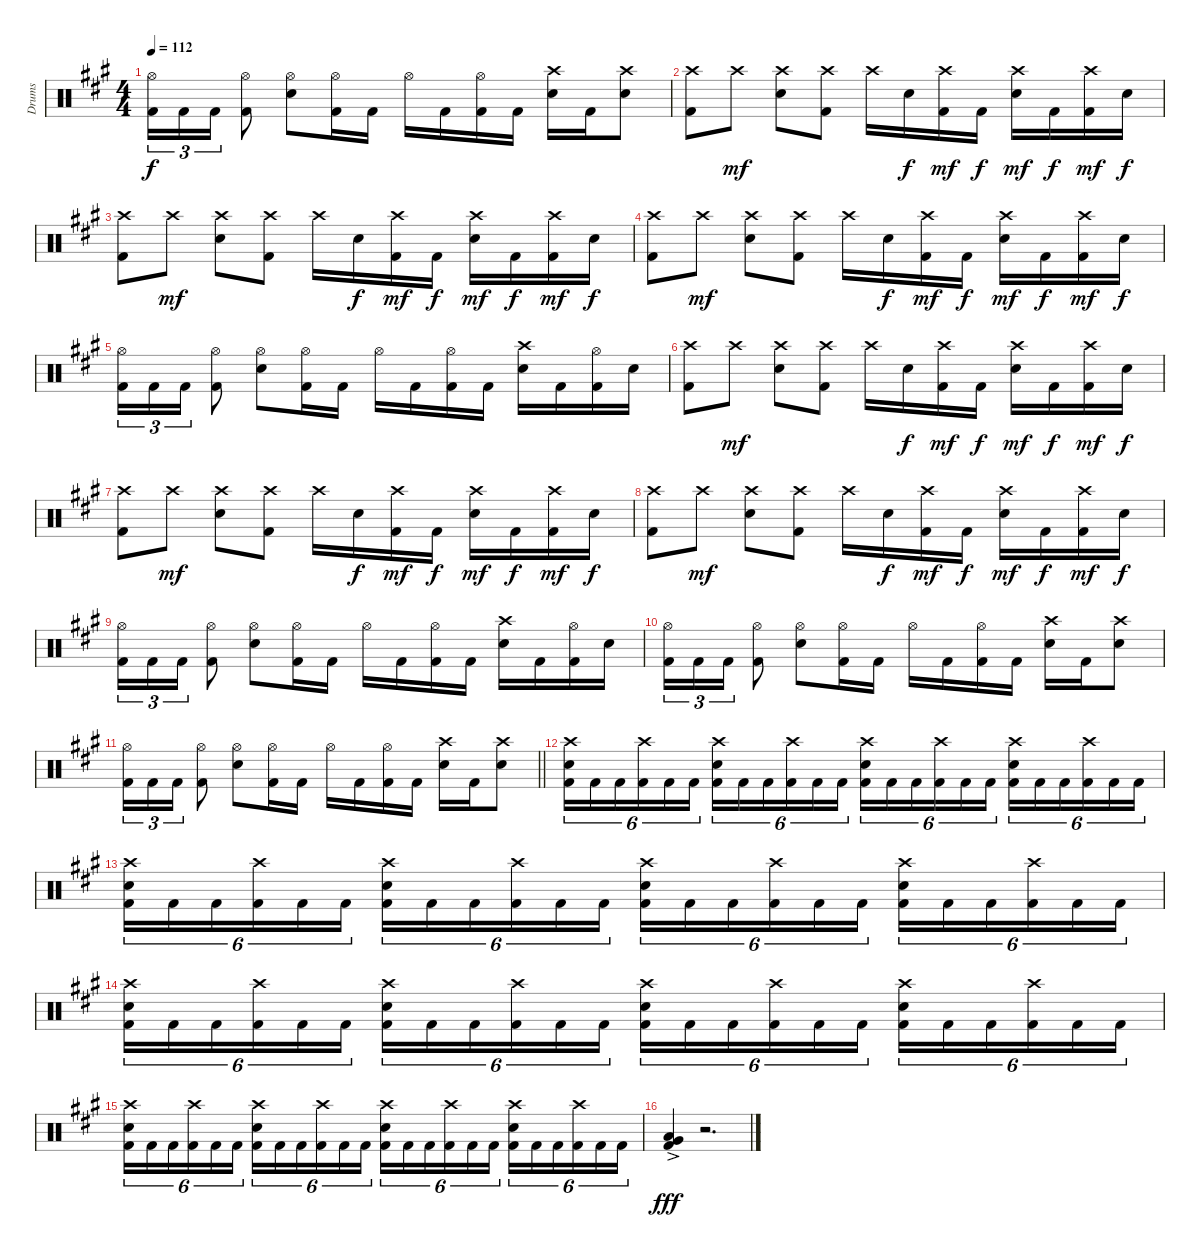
\track ("Drums" "Drums") {instrument percussion}
\staff {score}
\articulation defaults
\ts (4 4)
\tempo 112
\clef neutral
\ks f#minor
("Hi-Hat (open)" "Kick (hit) 2").16{tu (3 2) dy f} "Kick (hit) 2".16{tu (3 2)} "Kick (hit) 2".16{tu (3 2)} ("Hi-Hat (open)" "Kick (hit) 2").8 ("Hi-Hat (open)" "Snare (hit) 2").8 ("Hi-Hat (open)" "Kick (hit) 2").16 "Kick (hit) 2".16 "Hi-Hat (open)".16 "Kick (hit) 2".16 ("Hi-Hat (open)" "Kick (hit) 2").16 "Kick (hit) 2".16 ("Crash high (hit)" "Snare (hit) 2").16 "Kick (hit) 2".16 ("Crash high (hit)" "Snare (hit) 2").8 |
("Crash high (hit)" "Kick (hit) 2").8 "Crash high (hit)".8{dy mf} ("Crash high (hit)" "Snare (hit) 2").8 ("Crash high (hit)" "Kick (hit) 2").8 "Crash high (hit)".16 "Snare (hit) 2".16{dy f} ("Crash high (hit)" "Kick (hit) 2").16{dy mf} "Kick (hit) 2".16{dy f} ("Crash high (hit)" "Snare (hit) 2").16{dy mf} "Kick (hit) 2".16{dy f} ("Crash high (hit)" "Kick (hit) 2").16{dy mf} "Snare (hit) 2".16{dy f} |
("Crash high (hit)" "Kick (hit) 2").8 "Crash high (hit)".8{dy mf} ("Crash high (hit)" "Snare (hit) 2").8 ("Crash high (hit)" "Kick (hit) 2").8 "Crash high (hit)".16 "Snare (hit) 2".16{dy f} ("Crash high (hit)" "Kick (hit) 2").16{dy mf} "Kick (hit) 2".16{dy f} ("Crash high (hit)" "Snare (hit) 2").16{dy mf} "Kick (hit) 2".16{dy f} ("Crash high (hit)" "Kick (hit) 2").16{dy mf} "Snare (hit) 2".16{dy f} |
("Crash high (hit)" "Kick (hit) 2").8 "Crash high (hit)".8{dy mf} ("Crash high (hit)" "Snare (hit) 2").8 ("Crash high (hit)" "Kick (hit) 2").8 "Crash high (hit)".16 "Snare (hit) 2".16{dy f} ("Crash high (hit)" "Kick (hit) 2").16{dy mf} "Kick (hit) 2".16{dy f} ("Crash high (hit)" "Snare (hit) 2").16{dy mf} "Kick (hit) 2".16{dy f} ("Crash high (hit)" "Kick (hit) 2").16{dy mf} "Snare (hit) 2".16{dy f} |
("Hi-Hat (open)" "Kick (hit) 2").16{tu (3 2)} "Kick (hit) 2".16{tu (3 2)} "Kick (hit) 2".16{tu (3 2)} ("Hi-Hat (open)" "Kick (hit) 2").8 ("Hi-Hat (open)" "Snare (hit) 2").8 ("Hi-Hat (open)" "Kick (hit) 2").16 "Kick (hit) 2".16 "Hi-Hat (open)".16 "Kick (hit) 2".16 ("Hi-Hat (open)" "Kick (hit) 2").16 "Kick (hit) 2".16 ("Crash high (hit)" "Snare (hit) 2").16 "Kick (hit) 2".16 ("Hi-Hat (open)" "Kick (hit) 2").16 "Snare (hit) 2".16 |
("Crash high (hit)" "Kick (hit) 2").8 "Crash high (hit)".8{dy mf} ("Crash high (hit)" "Snare (hit) 2").8 ("Crash high (hit)" "Kick (hit) 2").8 "Crash high (hit)".16 "Snare (hit) 2".16{dy f} ("Crash high (hit)" "Kick (hit) 2").16{dy mf} "Kick (hit) 2".16{dy f} ("Crash high (hit)" "Snare (hit) 2").16{dy mf} "Kick (hit) 2".16{dy f} ("Crash high (hit)" "Kick (hit) 2").16{dy mf} "Snare (hit) 2".16{dy f} |
("Crash high (hit)" "Kick (hit) 2").8 "Crash high (hit)".8{dy mf} ("Crash high (hit)" "Snare (hit) 2").8 ("Crash high (hit)" "Kick (hit) 2").8 "Crash high (hit)".16 "Snare (hit) 2".16{dy f} ("Crash high (hit)" "Kick (hit) 2").16{dy mf} "Kick (hit) 2".16{dy f} ("Crash high (hit)" "Snare (hit) 2").16{dy mf} "Kick (hit) 2".16{dy f} ("Crash high (hit)" "Kick (hit) 2").16{dy mf} "Snare (hit) 2".16{dy f} |
("Crash high (hit)" "Kick (hit) 2").8 "Crash high (hit)".8{dy mf} ("Crash high (hit)" "Snare (hit) 2").8 ("Crash high (hit)" "Kick (hit) 2").8 "Crash high (hit)".16 "Snare (hit) 2".16{dy f} ("Crash high (hit)" "Kick (hit) 2").16{dy mf} "Kick (hit) 2".16{dy f} ("Crash high (hit)" "Snare (hit) 2").16{dy mf} "Kick (hit) 2".16{dy f} ("Crash high (hit)" "Kick (hit) 2").16{dy mf} "Snare (hit) 2".16{dy f} |
("Hi-Hat (open)" "Kick (hit) 2").16{tu (3 2)} "Kick (hit) 2".16{tu (3 2)} "Kick (hit) 2".16{tu (3 2)} ("Hi-Hat (open)" "Kick (hit) 2").8 ("Hi-Hat (open)" "Snare (hit) 2").8 ("Hi-Hat (open)" "Kick (hit) 2").16 "Kick (hit) 2".16 "Hi-Hat (open)".16 "Kick (hit) 2".16 ("Hi-Hat (open)" "Kick (hit) 2").16 "Kick (hit) 2".16 ("Crash high (hit)" "Snare (hit) 2").16 "Kick (hit) 2".16 ("Hi-Hat (open)" "Kick (hit) 2").16 "Snare (hit) 2".16 |
("Hi-Hat (open)" "Kick (hit) 2").16{tu (3 2)} "Kick (hit) 2".16{tu (3 2)} "Kick (hit) 2".16{tu (3 2)} ("Hi-Hat (open)" "Kick (hit) 2").8 ("Hi-Hat (open)" "Snare (hit) 2").8 ("Hi-Hat (open)" "Kick (hit) 2").16 "Kick (hit) 2".16 "Hi-Hat (open)".16 "Kick (hit) 2".16 ("Hi-Hat (open)" "Kick (hit) 2").16 "Kick (hit) 2".16 ("Crash high (hit)" "Snare (hit) 2").16 "Kick (hit) 2".16 ("Crash high (hit)" "Snare (hit) 2").8 |
\barLineRight lightlight
("Hi-Hat (open)" "Kick (hit) 2").16{tu (3 2)} "Kick (hit) 2".16{tu (3 2)} "Kick (hit) 2".16{tu (3 2)} ("Hi-Hat (open)" "Kick (hit) 2").8 ("Hi-Hat (open)" "Snare (hit) 2").8 ("Hi-Hat (open)" "Kick (hit) 2").16 "Kick (hit) 2".16 "Hi-Hat (open)".16 "Kick (hit) 2".16 ("Hi-Hat (open)" "Kick (hit) 2").16 "Kick (hit) 2".16 ("Crash high (hit)" "Snare (hit) 2").16 "Kick (hit) 2".16 ("Crash high (hit)" "Snare (hit) 2").8 |
("Crash high (hit)" "Snare (hit) 2" "Kick (hit) 2").16{tu (6 4)} "Kick (hit) 2".16{tu (6 4)} "Kick (hit) 2".16{tu (6 4)} ("Crash high (hit)" "Kick (hit) 2").16{tu (6 4)} "Kick (hit) 2".16{tu (6 4)} "Kick (hit) 2".16{tu (6 4)} ("Crash high (hit)" "Snare (hit) 2" "Kick (hit) 2").16{tu (6 4)} "Kick (hit) 2".16{tu (6 4)} "Kick (hit) 2".16{tu (6 4)} ("Crash high (hit)" "Kick (hit) 2").16{tu (6 4)} "Kick (hit) 2".16{tu (6 4)} "Kick (hit) 2".16{tu (6 4)} ("Crash high (hit)" "Snare (hit) 2" "Kick (hit) 2").16{tu (6 4)} "Kick (hit) 2".16{tu (6 4)} "Kick (hit) 2".16{tu (6 4)} ("Crash high (hit)" "Kick (hit) 2").16{tu (6 4)} "Kick (hit) 2".16{tu (6 4)} "Kick (hit) 2".16{tu (6 4)} ("Crash high (hit)" "Snare (hit) 2" "Kick (hit) 2").16{tu (6 4)} "Kick (hit) 2".16{tu (6 4)} "Kick (hit) 2".16{tu (6 4)} ("Crash high (hit)" "Kick (hit) 2").16{tu (6 4)} "Kick (hit) 2".16{tu (6 4)} "Kick (hit) 2".16{tu (6 4)} |
("Crash high (hit)" "Snare (hit) 2" "Kick (hit) 2").16{tu (6 4)} "Kick (hit) 2".16{tu (6 4)} "Kick (hit) 2".16{tu (6 4)} ("Crash high (hit)" "Kick (hit) 2").16{tu (6 4)} "Kick (hit) 2".16{tu (6 4)} "Kick (hit) 2".16{tu (6 4)} ("Crash high (hit)" "Snare (hit) 2" "Kick (hit) 2").16{tu (6 4)} "Kick (hit) 2".16{tu (6 4)} "Kick (hit) 2".16{tu (6 4)} ("Crash high (hit)" "Kick (hit) 2").16{tu (6 4)} "Kick (hit) 2".16{tu (6 4)} "Kick (hit) 2".16{tu (6 4)} ("Crash high (hit)" "Snare (hit) 2" "Kick (hit) 2").16{tu (6 4)} "Kick (hit) 2".16{tu (6 4)} "Kick (hit) 2".16{tu (6 4)} ("Crash high (hit)" "Kick (hit) 2").16{tu (6 4)} "Kick (hit) 2".16{tu (6 4)} "Kick (hit) 2".16{tu (6 4)} ("Crash high (hit)" "Snare (hit) 2" "Kick (hit) 2").16{tu (6 4)} "Kick (hit) 2".16{tu (6 4)} "Kick (hit) 2".16{tu (6 4)} ("Crash high (hit)" "Kick (hit) 2").16{tu (6 4)} "Kick (hit) 2".16{tu (6 4)} "Kick (hit) 2".16{tu (6 4)} |
("Crash high (hit)" "Snare (hit) 2" "Kick (hit) 2").16{tu (6 4)} "Kick (hit) 2".16{tu (6 4)} "Kick (hit) 2".16{tu (6 4)} ("Crash high (hit)" "Kick (hit) 2").16{tu (6 4)} "Kick (hit) 2".16{tu (6 4)} "Kick (hit) 2".16{tu (6 4)} ("Crash high (hit)" "Snare (hit) 2" "Kick (hit) 2").16{tu (6 4)} "Kick (hit) 2".16{tu (6 4)} "Kick (hit) 2".16{tu (6 4)} ("Crash high (hit)" "Kick (hit) 2").16{tu (6 4)} "Kick (hit) 2".16{tu (6 4)} "Kick (hit) 2".16{tu (6 4)} ("Crash high (hit)" "Snare (hit) 2" "Kick (hit) 2").16{tu (6 4)} "Kick (hit) 2".16{tu (6 4)} "Kick (hit) 2".16{tu (6 4)} ("Crash high (hit)" "Kick (hit) 2").16{tu (6 4)} "Kick (hit) 2".16{tu (6 4)} "Kick (hit) 2".16{tu (6 4)} ("Crash high (hit)" "Snare (hit) 2" "Kick (hit) 2").16{tu (6 4)} "Kick (hit) 2".16{tu (6 4)} "Kick (hit) 2".16{tu (6 4)} ("Crash high (hit)" "Kick (hit) 2").16{tu (6 4)} "Kick (hit) 2".16{tu (6 4)} "Kick (hit) 2".16{tu (6 4)} |
("Crash high (hit)" "Snare (hit) 2" "Kick (hit) 2").16{tu (6 4)} "Kick (hit) 2".16{tu (6 4)} "Kick (hit) 2".16{tu (6 4)} ("Crash high (hit)" "Kick (hit) 2").16{tu (6 4)} "Kick (hit) 2".16{tu (6 4)} "Kick (hit) 2".16{tu (6 4)} ("Crash high (hit)" "Snare (hit) 2" "Kick (hit) 2").16{tu (6 4)} "Kick (hit) 2".16{tu (6 4)} "Kick (hit) 2".16{tu (6 4)} ("Crash high (hit)" "Kick (hit) 2").16{tu (6 4)} "Kick (hit) 2".16{tu (6 4)} "Kick (hit) 2".16{tu (6 4)} ("Crash high (hit)" "Snare (hit) 2" "Kick (hit) 2").16{tu (6 4)} "Kick (hit) 2".16{tu (6 4)} "Kick (hit) 2".16{tu (6 4)} ("Crash high (hit)" "Kick (hit) 2").16{tu (6 4)} "Kick (hit) 2".16{tu (6 4)} "Kick (hit) 2".16{tu (6 4)} ("Crash high (hit)" "Snare (hit) 2" "Kick (hit) 2").16{tu (6 4)} "Kick (hit) 2".16{tu (6 4)} "Kick (hit) 2".16{tu (6 4)} ("Crash high (hit)" "Kick (hit) 2").16{tu (6 4)} "Kick (hit) 2".16{tu (6 4)} "Kick (hit) 2".16{tu (6 4)} |
("Very Low Tom (hit)"{ac} "Low Floor Tom (hit)"{ac} "Kick (hit) 2"{ac}).4{dy fff} r.2{d}
